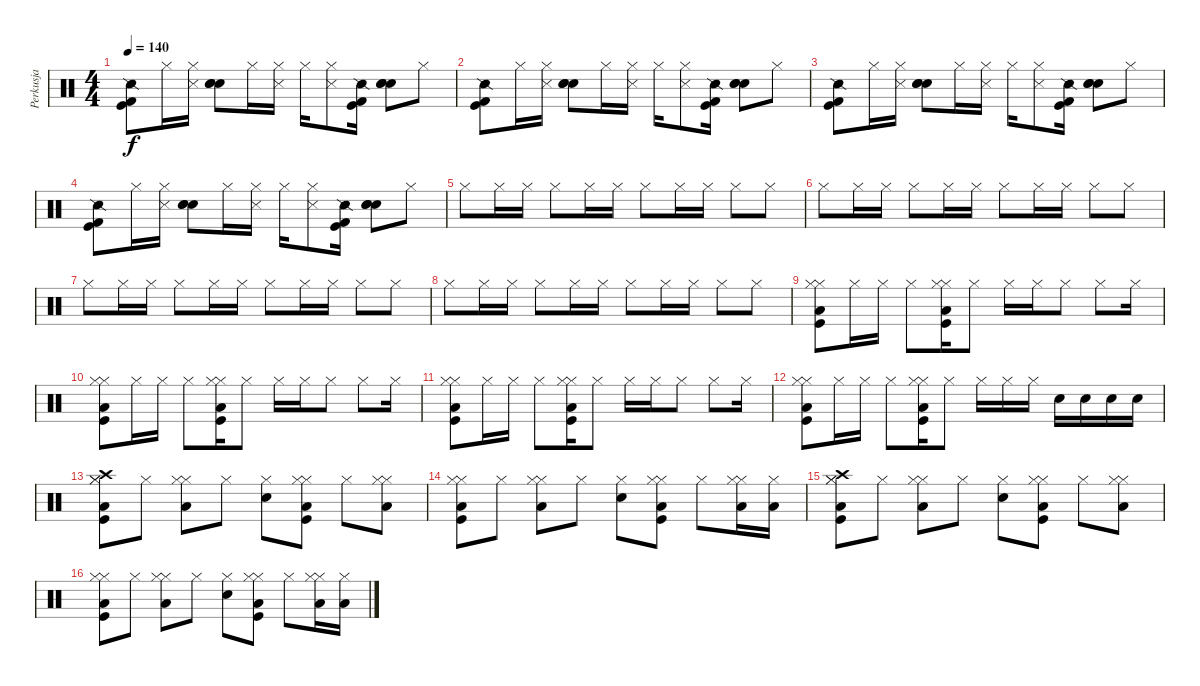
\track ("Perkusja" "Perkusja") {instrument percussion}
\staff {score}
\articulation defaults
\ts (4 4)
\tempo 140
\clef neutral
\ks c
("Kick (hit)" "Kick (hit) 2" "Snare (side stick) 2").8{dy f} "Hi-Hat (closed)".16 ("Hi-Hat (closed)" "Snare (side stick) 3").16 ("Snare (hit) 2" "Electric Snare (hit)" "Hand Clap (hit)").8 "Hi-Hat (closed)".16 ("Hi-Hat (closed)" "Snare (side stick) 3").16 "Hi-Hat (closed)".16 ("Hi-Hat (closed)" "Snare (side stick) 3").8 ("Kick (hit)" "Kick (hit) 2" "Snare (side stick) 2").16 ("Snare (hit) 2" "Electric Snare (hit)" "Hand Clap (hit)").8 "Hi-Hat (closed)".8 |
("Kick (hit)" "Kick (hit) 2" "Snare (side stick) 2").8 "Hi-Hat (closed)".16 ("Hi-Hat (closed)" "Snare (side stick) 3").16 ("Snare (hit) 2" "Electric Snare (hit)" "Hand Clap (hit)").8 "Hi-Hat (closed)".16 ("Hi-Hat (closed)" "Snare (side stick) 3").16 "Hi-Hat (closed)".16 ("Hi-Hat (closed)" "Snare (side stick) 3").8 ("Kick (hit)" "Kick (hit) 2" "Snare (side stick) 2").16 ("Snare (hit) 2" "Electric Snare (hit)" "Hand Clap (hit)").8 "Hi-Hat (closed)".8 |
("Kick (hit)" "Kick (hit) 2" "Snare (side stick) 2").8 "Hi-Hat (closed)".16 ("Hi-Hat (closed)" "Snare (side stick) 3").16 ("Snare (hit) 2" "Electric Snare (hit)" "Hand Clap (hit)").8 "Hi-Hat (closed)".16 ("Hi-Hat (closed)" "Snare (side stick) 3").16 "Hi-Hat (closed)".16 ("Hi-Hat (closed)" "Snare (side stick) 3").8 ("Kick (hit)" "Kick (hit) 2" "Snare (side stick) 2").16 ("Snare (hit) 2" "Electric Snare (hit)" "Hand Clap (hit)").8 "Hi-Hat (closed)".8 |
("Kick (hit)" "Kick (hit) 2" "Snare (side stick) 2").8 "Hi-Hat (closed)".16 ("Hi-Hat (closed)" "Snare (side stick) 3").16 ("Snare (hit) 2" "Electric Snare (hit)" "Hand Clap (hit)").8 "Hi-Hat (closed)".16 ("Hi-Hat (closed)" "Snare (side stick) 3").16 "Hi-Hat (closed)".16 ("Hi-Hat (closed)" "Snare (side stick) 3").8 ("Kick (hit)" "Kick (hit) 2" "Snare (side stick) 2").16 ("Snare (hit) 2" "Electric Snare (hit)" "Hand Clap (hit)").8 "Hi-Hat (closed)".8 |
"Hi-Hat (closed)".8 "Hi-Hat (closed)".16 "Hi-Hat (closed)".16 "Hi-Hat (closed)".8 "Hi-Hat (closed)".16 "Hi-Hat (closed)".16 "Hi-Hat (closed)".8 "Hi-Hat (closed)".16 "Hi-Hat (closed)".16 "Hi-Hat (closed)".8 "Hi-Hat (closed)".8 |
"Hi-Hat (closed)".8 "Hi-Hat (closed)".16 "Hi-Hat (closed)".16 "Hi-Hat (closed)".8 "Hi-Hat (closed)".16 "Hi-Hat (closed)".16 "Hi-Hat (closed)".8 "Hi-Hat (closed)".16 "Hi-Hat (closed)".16 "Hi-Hat (closed)".8 "Hi-Hat (closed)".8 |
"Hi-Hat (closed)".8 "Hi-Hat (closed)".16 "Hi-Hat (closed)".16 "Hi-Hat (closed)".8 "Hi-Hat (closed)".16 "Hi-Hat (closed)".16 "Hi-Hat (closed)".8 "Hi-Hat (closed)".16 "Hi-Hat (closed)".16 "Hi-Hat (closed)".8 "Hi-Hat (closed)".8 |
"Hi-Hat (closed)".8 "Hi-Hat (closed)".16 "Hi-Hat (closed)".16 "Hi-Hat (closed)".8 "Hi-Hat (closed)".16 "Hi-Hat (closed)".16 "Hi-Hat (closed)".8 "Hi-Hat (closed)".16 "Hi-Hat (closed)".16 "Hi-Hat (closed)".8 "Hi-Hat (closed)".8 |
("Hi-Hat (closed)" "Hi-Hat (closed)" "Low Floor Tom (hit)" "Kick (hit)").8 "Hi-Hat (closed)".16 "Hi-Hat (closed)".16 "Hi-Hat (closed)".8 ("Hi-Hat (closed)" "Hi-Hat (closed)" "Low Floor Tom (hit)" "Kick (hit)").16 "Hi-Hat (closed)".8 "Hi-Hat (closed)".16 "Hi-Hat (closed)".16 "Hi-Hat (closed)".8 "Hi-Hat (closed)".8 "Hi-Hat (closed)".16 |
("Hi-Hat (closed)" "Hi-Hat (closed)" "Low Floor Tom (hit)" "Kick (hit)").8 "Hi-Hat (closed)".16 "Hi-Hat (closed)".16 "Hi-Hat (closed)".8 ("Hi-Hat (closed)" "Hi-Hat (closed)" "Low Floor Tom (hit)" "Kick (hit)").16 "Hi-Hat (closed)".8 "Hi-Hat (closed)".16 "Hi-Hat (closed)".16 "Hi-Hat (closed)".8 "Hi-Hat (closed)".8 "Hi-Hat (closed)".16 |
("Hi-Hat (closed)" "Hi-Hat (closed)" "Low Floor Tom (hit)" "Kick (hit)").8 "Hi-Hat (closed)".16 "Hi-Hat (closed)".16 "Hi-Hat (closed)".8 ("Hi-Hat (closed)" "Hi-Hat (closed)" "Low Floor Tom (hit)" "Kick (hit)").16 "Hi-Hat (closed)".8 "Hi-Hat (closed)".16 "Hi-Hat (closed)".16 "Hi-Hat (closed)".8 "Hi-Hat (closed)".8 "Hi-Hat (closed)".16 |
("Hi-Hat (closed)" "Hi-Hat (closed)" "Low Floor Tom (hit)" "Kick (hit)").8 "Hi-Hat (closed)".16 "Hi-Hat (closed)".16 "Hi-Hat (closed)".8 ("Hi-Hat (closed)" "Hi-Hat (closed)" "Low Floor Tom (hit)" "Kick (hit)").16 "Hi-Hat (closed)".8 "Hi-Hat (closed)".16 "Hi-Hat (closed)".16 "Hi-Hat (closed)".16 "Snare (hit) 2".16 "Snare (hit) 2".16 "Snare (hit) 2".16 "Snare (hit) 2".16 |
("Kick (hit)" "Hi-Hat (closed)" "Hi-Hat (closed)" "Low Floor Tom (hit)" "Crash high (hit)").8 "Hi-Hat (closed)".8 ("Hi-Hat (closed)" "Hi-Hat (closed)" "Low Floor Tom (hit)").8 "Hi-Hat (closed)".8 ("Snare (hit) 2" "Hi-Hat (closed)").8 ("Kick (hit)" "Hi-Hat (closed)" "Hi-Hat (closed)" "Low Floor Tom (hit)").8 "Hi-Hat (closed)".8 ("Hi-Hat (closed)" "Hi-Hat (closed)" "Low Floor Tom (hit)").8 |
("Kick (hit)" "Hi-Hat (closed)" "Hi-Hat (closed)" "Low Floor Tom (hit)").8 "Hi-Hat (closed)".8 ("Hi-Hat (closed)" "Hi-Hat (closed)" "Low Floor Tom (hit)").8 "Hi-Hat (closed)".8 ("Snare (hit) 2" "Hi-Hat (closed)").8 ("Kick (hit)" "Hi-Hat (closed)" "Hi-Hat (closed)" "Low Floor Tom (hit)").8 "Hi-Hat (closed)".8 ("Hi-Hat (closed)" "Hi-Hat (closed)" "Low Floor Tom (hit)").16 ("Hi-Hat (closed)" "Low Floor Tom (hit)").16 |
("Kick (hit)" "Hi-Hat (closed)" "Hi-Hat (closed)" "Low Floor Tom (hit)" "Crash high (hit)").8 "Hi-Hat (closed)".8 ("Hi-Hat (closed)" "Hi-Hat (closed)" "Low Floor Tom (hit)").8 "Hi-Hat (closed)".8 ("Snare (hit) 2" "Hi-Hat (closed)").8 ("Kick (hit)" "Hi-Hat (closed)" "Hi-Hat (closed)" "Low Floor Tom (hit)").8 "Hi-Hat (closed)".8 ("Hi-Hat (closed)" "Hi-Hat (closed)" "Low Floor Tom (hit)").8 |
("Kick (hit)" "Hi-Hat (closed)" "Hi-Hat (closed)" "Low Floor Tom (hit)").8 "Hi-Hat (closed)".8 ("Hi-Hat (closed)" "Hi-Hat (closed)" "Low Floor Tom (hit)").8 "Hi-Hat (closed)".8 ("Snare (hit) 2" "Hi-Hat (closed)").8 ("Kick (hit)" "Hi-Hat (closed)" "Hi-Hat (closed)" "Low Floor Tom (hit)").8 "Hi-Hat (closed)".8 ("Hi-Hat (closed)" "Hi-Hat (closed)" "Low Floor Tom (hit)").16 ("Hi-Hat (closed)" "Low Floor Tom (hit)").16
